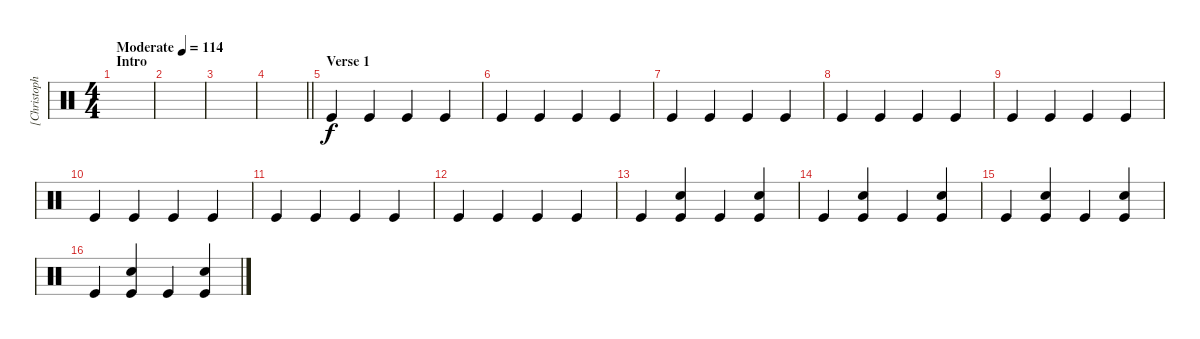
\track ("[Christoph Schneider] ;Drums" "[Christoph") {solo instrument percussion}
\staff {score}
\articulation defaults
\ts (4 4)
\section ("" "Intro")
\tempo (114 "Moderate")
\clef neutral
\ks c
|
|
|
\barLineRight lightlight
|
\section ("" "Verse 1")
"Kick (hit)".4 "Kick (hit)".4 "Kick (hit)".4 "Kick (hit)".4 |
"Kick (hit)".4 "Kick (hit)".4 "Kick (hit)".4 "Kick (hit)".4 |
"Kick (hit)".4 "Kick (hit)".4 "Kick (hit)".4 "Kick (hit)".4 |
"Kick (hit)".4 "Kick (hit)".4 "Kick (hit)".4 "Kick (hit)".4 |
"Kick (hit)".4 "Kick (hit)".4 "Kick (hit)".4 "Kick (hit)".4 |
"Kick (hit)".4 "Kick (hit)".4 "Kick (hit)".4 "Kick (hit)".4 |
"Kick (hit)".4 "Kick (hit)".4 "Kick (hit)".4 "Kick (hit)".4 |
"Kick (hit)".4 "Kick (hit)".4 "Kick (hit)".4 "Kick (hit)".4 |
"Kick (hit)".4 ("Kick (hit)" "Snare (hit) 2").4 "Kick (hit)".4 ("Kick (hit)" "Snare (hit) 2").4 |
"Kick (hit)".4 ("Kick (hit)" "Snare (hit) 2").4 "Kick (hit)".4 ("Kick (hit)" "Snare (hit) 2").4 |
"Kick (hit)".4 ("Kick (hit)" "Snare (hit) 2").4 "Kick (hit)".4 ("Kick (hit)" "Snare (hit) 2").4 |
"Kick (hit)".4 ("Kick (hit)" "Snare (hit) 2").4 "Kick (hit)".4 ("Kick (hit)" "Snare (hit) 2").4
